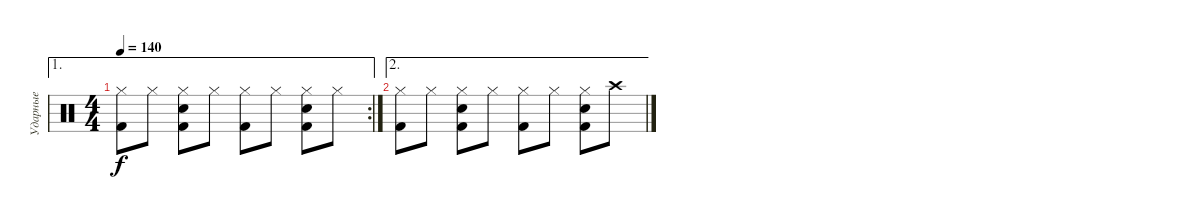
\track ("Ударные" "Ударные") {instrument percussion}
\staff {score}
\articulation defaults
\ae 1
\rc 2
\ts (4 4)
\tempo 140
\clef neutral
\ks c
("Hi-Hat (closed)" "Kick (hit) 2").8{dy f} "Hi-Hat (closed)".8 ("Hi-Hat (closed)" "Kick (hit) 2" "Snare (hit) 2").8 "Hi-Hat (closed)".8 ("Hi-Hat (closed)" "Kick (hit) 2").8 "Hi-Hat (closed)".8 ("Hi-Hat (closed)" "Kick (hit) 2" "Snare (hit) 2").8 "Hi-Hat (closed)".8 |
\ae 2
("Hi-Hat (closed)" "Kick (hit) 2").8 "Hi-Hat (closed)".8 ("Hi-Hat (closed)" "Kick (hit) 2" "Snare (hit) 2").8 "Hi-Hat (closed)".8 ("Hi-Hat (closed)" "Kick (hit) 2").8 "Hi-Hat (closed)".8 ("Hi-Hat (closed)" "Kick (hit) 2" "Snare (hit) 2").8 "Crash high (hit)".8
